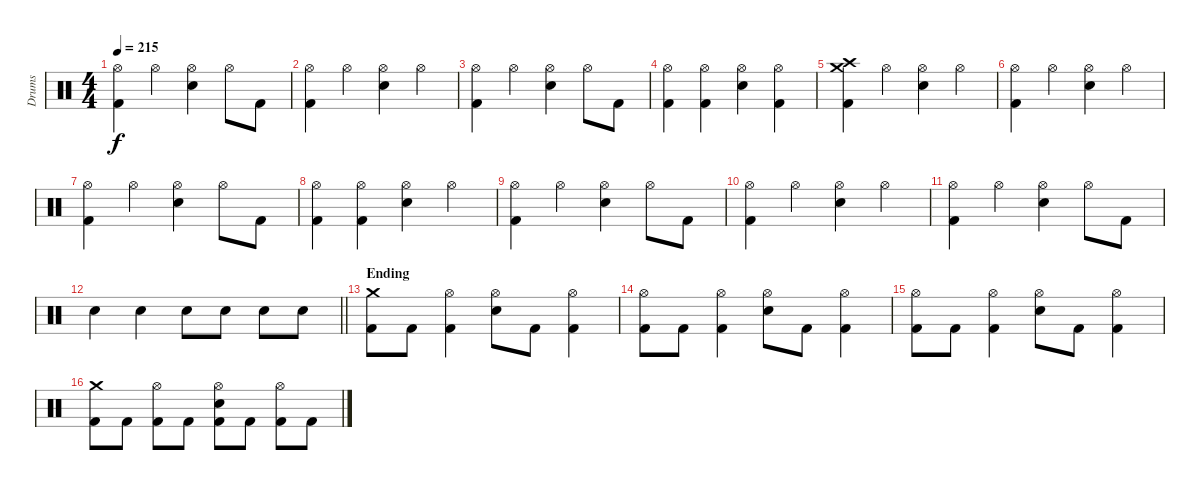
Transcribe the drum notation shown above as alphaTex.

\track ("Drums" "Drums") {instrument percussion}
\staff {score}
\articulation defaults
\ts (4 4)
\tempo 215
\clef neutral
\ks c
("Hi-Hat (open)" "Kick (hit) 2").4{dy f} "Hi-Hat (open)".4 ("Hi-Hat (open)" "Electric Snare (hit)").4 "Hi-Hat (open)".8 "Kick (hit) 2".8 |
("Hi-Hat (open)" "Kick (hit) 2").4 "Hi-Hat (open)".4 ("Hi-Hat (open)" "Electric Snare (hit)").4 "Hi-Hat (open)".4 |
("Hi-Hat (open)" "Kick (hit) 2").4 "Hi-Hat (open)".4 ("Hi-Hat (open)" "Electric Snare (hit)").4 "Hi-Hat (open)".8 "Kick (hit) 2".8 |
("Hi-Hat (open)" "Kick (hit) 2").4 ("Hi-Hat (open)" "Kick (hit) 2").4 ("Hi-Hat (open)" "Electric Snare (hit)").4 ("Hi-Hat (open)" "Kick (hit) 2").4 |
("Crash medium (hit)" "Crash high (hit)" "Kick (hit) 2").4 "Hi-Hat (open)".4 ("Hi-Hat (open)" "Electric Snare (hit)").4 "Hi-Hat (open)".4 |
("Hi-Hat (open)" "Kick (hit) 2").4 "Hi-Hat (open)".4 ("Hi-Hat (open)" "Electric Snare (hit)").4 "Hi-Hat (open)".4 |
("Hi-Hat (open)" "Kick (hit) 2").4 "Hi-Hat (open)".4 ("Hi-Hat (open)" "Electric Snare (hit)").4 "Hi-Hat (open)".8 "Kick (hit) 2".8 |
("Hi-Hat (open)" "Kick (hit) 2").4 ("Hi-Hat (open)" "Kick (hit) 2").4 ("Hi-Hat (open)" "Electric Snare (hit)").4 "Hi-Hat (open)".4 |
("Hi-Hat (open)" "Kick (hit) 2").4 "Hi-Hat (open)".4 ("Hi-Hat (open)" "Electric Snare (hit)").4 "Hi-Hat (open)".8 "Kick (hit) 2".8 |
("Hi-Hat (open)" "Kick (hit) 2").4 "Hi-Hat (open)".4 ("Hi-Hat (open)" "Electric Snare (hit)").4 "Hi-Hat (open)".4 |
("Hi-Hat (open)" "Kick (hit) 2").4 "Hi-Hat (open)".4 ("Hi-Hat (open)" "Electric Snare (hit)").4 "Hi-Hat (open)".8 "Kick (hit) 2".8 |
\barLineRight lightlight "Electric Snare (hit)".4 "Electric Snare (hit)".4 "Electric Snare (hit)".8 "Electric Snare (hit)".8 "Electric Snare (hit)".8 "Electric Snare (hit)".8
|
\section ("" "Ending")
("Crash medium (hit)" "Kick (hit) 2").8 "Kick (hit) 2".8 ("Hi-Hat (open)" "Kick (hit) 2").4 ("Hi-Hat (open)" "Electric Snare (hit)").8 "Kick (hit) 2".8 ("Hi-Hat (open)" "Kick (hit) 2").4 |
("Hi-Hat (open)" "Kick (hit) 2").8 "Kick (hit) 2".8 ("Hi-Hat (open)" "Kick (hit) 2").4 ("Hi-Hat (open)" "Electric Snare (hit)").8 "Kick (hit) 2".8 ("Hi-Hat (open)" "Kick (hit) 2").4 |
("Hi-Hat (open)" "Kick (hit) 2").8 "Kick (hit) 2".8 ("Hi-Hat (open)" "Kick (hit) 2").4 ("Hi-Hat (open)" "Electric Snare (hit)").8 "Kick (hit) 2".8 ("Hi-Hat (open)" "Kick (hit) 2").4 |
("Crash medium (hit)" "Kick (hit) 2").8 "Kick (hit) 2".8 ("Hi-Hat (open)" "Kick (hit) 2").8 "Kick (hit) 2".8 ("Hi-Hat (open)" "Electric Snare (hit)" "Kick (hit) 2").8 "Kick (hit) 2".8 ("Hi-Hat (open)" "Kick (hit) 2").8 "Kick (hit) 2".8
